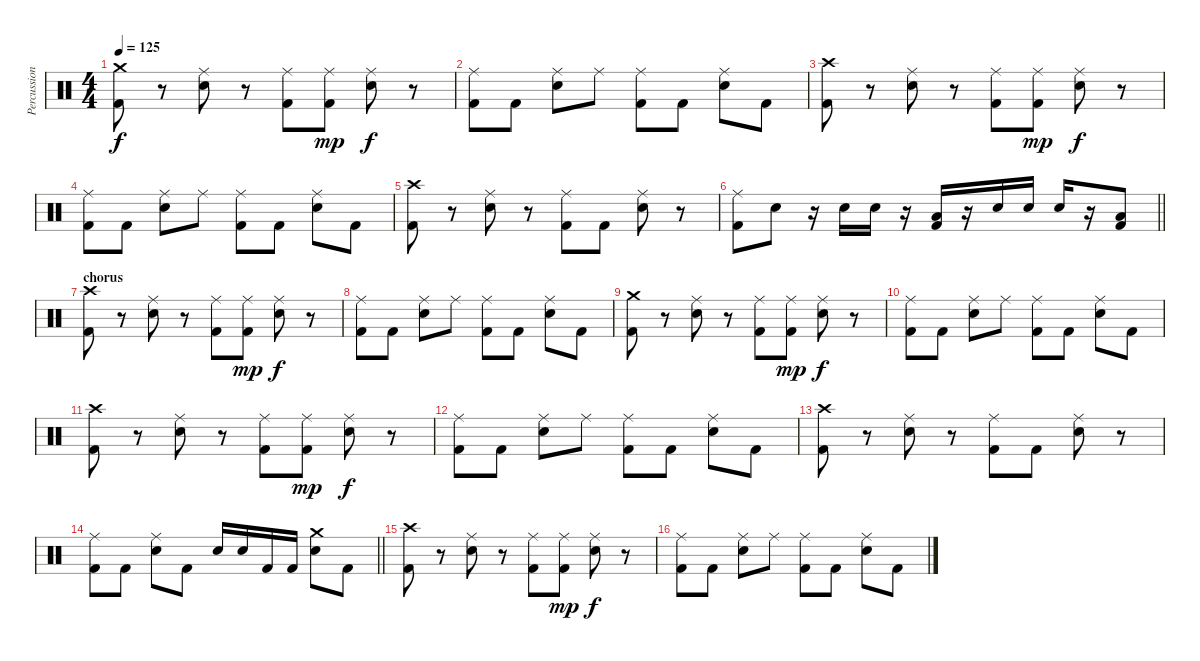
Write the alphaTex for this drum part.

\track ("Percussion" "Percussion") {instrument percussion}
\staff {score}
\articulation defaults
\ts (4 4)
\tempo 125
\clef neutral
\ks c
("Crash medium (hit)" "Kick (hit) 2").8{dy f} r.8 ("Ride (middle)" "Snare (hit) 2").8 r.8 ("Ride (middle)" "Kick (hit) 2").8 ("Ride (middle)" "Kick (hit) 2").8{dy mp} ("Ride (middle)" "Snare (hit) 2").8{dy f} r.8 |
("Ride (middle)" "Kick (hit) 2").8 "Kick (hit) 2".8 ("Ride (middle)" "Snare (hit) 2").8 "Ride (middle)".8 ("Ride (middle)" "Kick (hit) 2").8 "Kick (hit) 2".8 ("Ride (middle)" "Snare (hit) 2").8 "Kick (hit) 2".8 |
("Crash high (hit)" "Kick (hit) 2").8 r.8 ("Ride (middle)" "Snare (hit) 2").8 r.8 ("Ride (middle)" "Kick (hit) 2").8 ("Ride (middle)" "Kick (hit) 2").8{dy mp} ("Ride (middle)" "Snare (hit) 2").8{dy f} r.8 |
("Ride (middle)" "Kick (hit) 2").8 "Kick (hit) 2".8 ("Ride (middle)" "Snare (hit) 2").8 "Ride (middle)".8 ("Ride (middle)" "Kick (hit) 2").8 "Kick (hit) 2".8 ("Ride (middle)" "Snare (hit) 2").8 "Kick (hit) 2".8 |
("Crash high (hit)" "Kick (hit) 2").8 r.8 ("Ride (middle)" "Snare (hit) 2").8 r.8 ("Ride (middle)" "Kick (hit) 2").8 "Kick (hit) 2".8 ("Ride (middle)" "Snare (hit) 2").8 r.8 |
\barLineRight lightlight
("Ride (middle)" "Kick (hit) 2").8 "Snare (hit) 2".8 r.16 "Snare (hit) 2".16 "Snare (hit) 2".16 r.16 ("Low Tom (hit)" "Kick (hit) 2").16 r.16 "Snare (hit) 2".16 "Snare (hit) 2".16 "Snare (hit) 2".16 r.16 ("Low Tom (hit)" "Kick (hit) 2").8 |
\section ("" "chorus")
("Crash high (hit)" "Kick (hit) 2").8 r.8 ("Ride (middle)" "Snare (hit) 2").8 r.8 ("Ride (middle)" "Kick (hit) 2").8 ("Ride (middle)" "Kick (hit) 2").8{dy mp} ("Ride (middle)" "Snare (hit) 2").8{dy f} r.8 |
("Ride (middle)" "Kick (hit) 2").8 "Kick (hit) 2".8 ("Ride (middle)" "Snare (hit) 2").8 "Ride (middle)".8 ("Ride (middle)" "Kick (hit) 2").8 "Kick (hit) 2".8 ("Ride (middle)" "Snare (hit) 2").8 "Kick (hit) 2".8 |
("Crash medium (hit)" "Kick (hit) 2").8 r.8 ("Ride (middle)" "Snare (hit) 2").8 r.8 ("Ride (middle)" "Kick (hit) 2").8 ("Ride (middle)" "Kick (hit) 2").8{dy mp} ("Ride (middle)" "Snare (hit) 2").8{dy f} r.8 |
("Ride (middle)" "Kick (hit) 2").8 "Kick (hit) 2".8 ("Ride (middle)" "Snare (hit) 2").8 "Ride (middle)".8 ("Ride (middle)" "Kick (hit) 2").8 "Kick (hit) 2".8 ("Ride (middle)" "Snare (hit) 2").8 "Kick (hit) 2".8 |
("Crash high (hit)" "Kick (hit) 2").8 r.8 ("Ride (middle)" "Snare (hit) 2").8 r.8 ("Ride (middle)" "Kick (hit) 2").8 ("Ride (middle)" "Kick (hit) 2").8{dy mp} ("Ride (middle)" "Snare (hit) 2").8{dy f} r.8 |
("Ride (middle)" "Kick (hit) 2").8 "Kick (hit) 2".8 ("Ride (middle)" "Snare (hit) 2").8 "Ride (middle)".8 ("Ride (middle)" "Kick (hit) 2").8 "Kick (hit) 2".8 ("Ride (middle)" "Snare (hit) 2").8 "Kick (hit) 2".8 |
("Crash high (hit)" "Kick (hit) 2").8 r.8 ("Ride (middle)" "Snare (hit) 2").8 r.8 ("Ride (middle)" "Kick (hit) 2").8 "Kick (hit) 2".8 ("Ride (middle)" "Snare (hit) 2").8 r.8 |
\barLineRight lightlight
("Ride (middle)" "Kick (hit) 2").8 "Kick (hit) 2".8 ("Ride (middle)" "Snare (hit) 2").8 "Kick (hit) 2".8 "Snare (hit) 2".16 "Snare (hit) 2".16 "Kick (hit) 2".16 "Kick (hit) 2".16 ("Crash medium (hit)" "Snare (hit) 2").8 "Kick (hit) 2".8 |
("Crash high (hit)" "Kick (hit) 2").8 r.8 ("Ride (middle)" "Snare (hit) 2").8 r.8 ("Ride (middle)" "Kick (hit) 2").8 ("Ride (middle)" "Kick (hit) 2").8{dy mp} ("Ride (middle)" "Snare (hit) 2").8{dy f} r.8 |
("Ride (middle)" "Kick (hit) 2").8 "Kick (hit) 2".8 ("Ride (middle)" "Snare (hit) 2").8 "Ride (middle)".8 ("Ride (middle)" "Kick (hit) 2").8 "Kick (hit) 2".8 ("Ride (middle)" "Snare (hit) 2").8 "Kick (hit) 2".8
